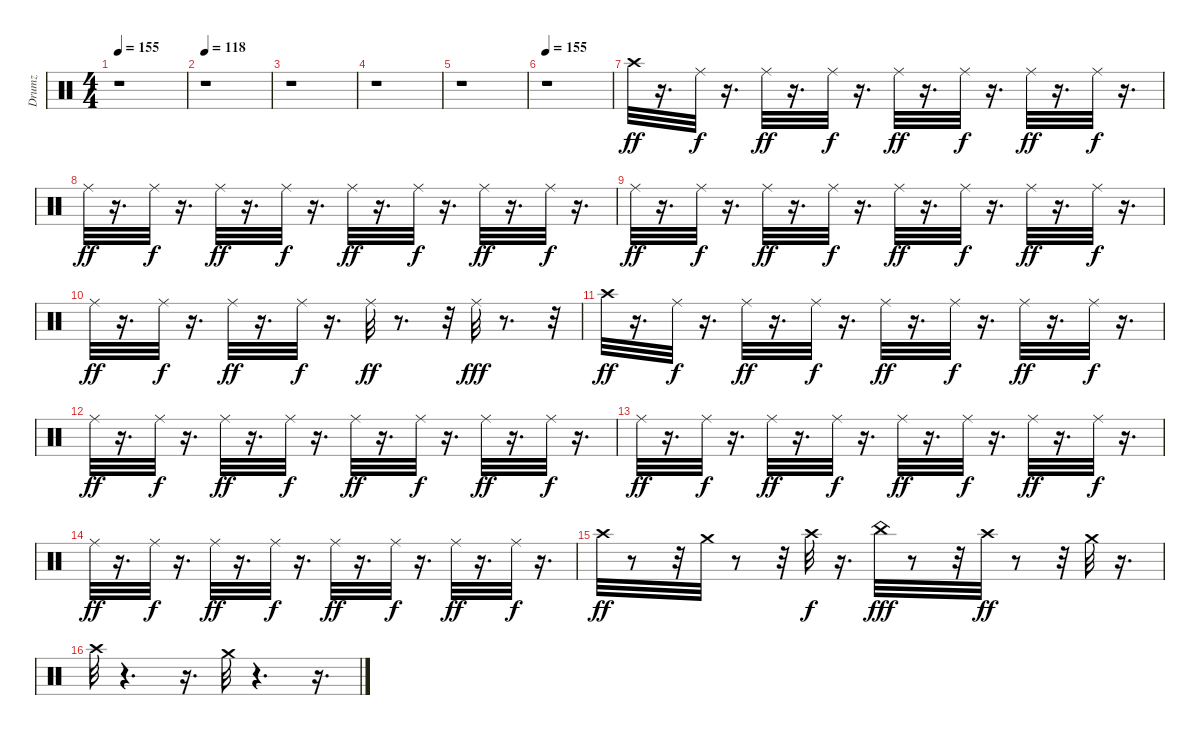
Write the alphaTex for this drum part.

\track ("Drumz" "Drumz") {instrument percussion}
\staff {score}
\articulation defaults
\ts (4 4)
\tempo 155
\clef neutral
\ks c
r.1{dy ff} |
\tempo 118
r.1 |
r.1 |
r.1 |
r.1 |
\tempo 155
r.1 |
"Crash high (hit)".32 r.16{d} "Ride (middle)".32{dy f} r.16{d} "Ride (middle)".32{dy ff} r.16{d} "Ride (middle)".32{dy f} r.16{d} "Ride (middle)".32{dy ff} r.16{d} "Ride (middle)".32{dy f} r.16{d} "Ride (middle)".32{dy ff} r.16{d} "Ride (middle)".32{dy f} r.16{d} |
"Ride (middle)".32{dy ff} r.16{d} "Ride (middle)".32{dy f} r.16{d} "Ride (middle)".32{dy ff} r.16{d} "Ride (middle)".32{dy f} r.16{d} "Ride (middle)".32{dy ff} r.16{d} "Ride (middle)".32{dy f} r.16{d} "Ride (middle)".32{dy ff} r.16{d} "Ride (middle)".32{dy f} r.16{d} |
"Ride (middle)".32{dy ff} r.16{d} "Ride (middle)".32{dy f} r.16{d} "Ride (middle)".32{dy ff} r.16{d} "Ride (middle)".32{dy f} r.16{d} "Ride (middle)".32{dy ff} r.16{d} "Ride (middle)".32{dy f} r.16{d} "Ride (middle)".32{dy ff} r.16{d} "Ride (middle)".32{dy f} r.16{d} |
"Ride (middle)".32{dy ff} r.16{d} "Ride (middle)".32{dy f} r.16{d} "Ride (middle)".32{dy ff} r.16{d} "Ride (middle)".32{dy f} r.16{d} "Ride (middle)".32{dy ff} r.8{d} r.32 "Ride (middle)".32{dy fff} r.8{d} r.32 |
"Crash high (hit)".32{dy ff} r.16{d} "Ride (middle)".32{dy f} r.16{d} "Ride (middle)".32{dy ff} r.16{d} "Ride (middle)".32{dy f} r.16{d} "Ride (middle)".32{dy ff} r.16{d} "Ride (middle)".32{dy f} r.16{d} "Ride (middle)".32{dy ff} r.16{d} "Ride (middle)".32{dy f} r.16{d} |
"Ride (middle)".32{dy ff} r.16{d} "Ride (middle)".32{dy f} r.16{d} "Ride (middle)".32{dy ff} r.16{d} "Ride (middle)".32{dy f} r.16{d} "Ride (middle)".32{dy ff} r.16{d} "Ride (middle)".32{dy f} r.16{d} "Ride (middle)".32{dy ff} r.16{d} "Ride (middle)".32{dy f} r.16{d} |
"Ride (middle)".32{dy ff} r.16{d} "Ride (middle)".32{dy f} r.16{d} "Ride (middle)".32{dy ff} r.16{d} "Ride (middle)".32{dy f} r.16{d} "Ride (middle)".32{dy ff} r.16{d} "Ride (middle)".32{dy f} r.16{d} "Ride (middle)".32{dy ff} r.16{d} "Ride (middle)".32{dy f} r.16{d} |
"Ride (middle)".32{dy ff} r.16{d} "Ride (middle)".32{dy f} r.16{d} "Ride (middle)".32{dy ff} r.16{d} "Ride (middle)".32{dy f} r.16{d} "Ride (middle)".32{dy ff} r.16{d} "Ride (middle)".32{dy f} r.16{d} "Ride (middle)".32{dy ff} r.16{d} "Ride (middle)".32{dy f} r.16{d} |
"Crash high (hit)".32{dy ff} r.8 r.32 "Crash medium (hit)".32 r.8 r.32 "Crash high (hit)".32{dy f} r.16{d} "China (hit)".32{dy fff} r.8 r.32 "Crash high (hit)".32{dy ff} r.8 r.32 "Crash medium (hit)".32 r.16{d} |
"Crash high (hit)".32 r.4{d} r.16{d} "Crash medium (hit)".32 r.4{d} r.16{d}
